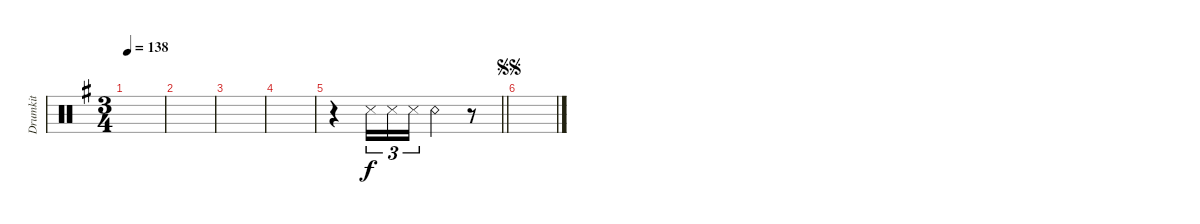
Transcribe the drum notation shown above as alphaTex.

\track ("Drumkit" "Drumkit") {instrument percussion}
\staff {score}
\articulation defaults
\ts (3 4)
\tempo 138
\clef neutral
\ks eminor
|
|
|
|
\barLineRight lightlight
r.4 "Snare (side stick) 3".16{tu (3 2)} "Snare (side stick) 3".16{tu (3 2)} "Snare (side stick) 3".16{tu (3 2)} "Snare (rim shot)".4 r.8 |
\jump segnosegno
